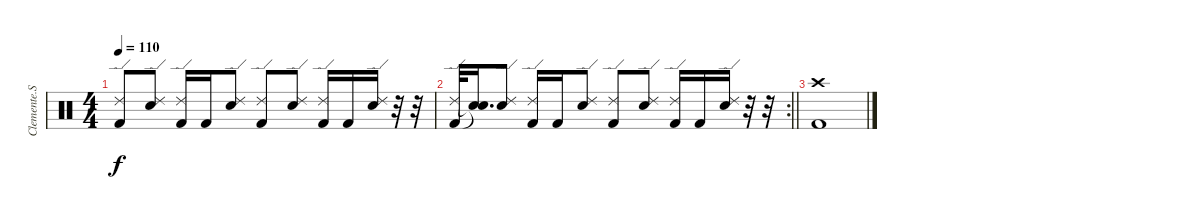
\track ("Clemente.S" "Clemente.S") {instrument percussion}
\staff {score}
\articulation defaults
\ts (4 4)
\tempo 110
\clef neutral
\ks c
("Ride (edge) 2" "Kick (hit) 2").8{dy f} ("Ride (edge) 2" "Electric Snare (hit)").8 ("Ride (edge) 2" "Kick (hit) 2").16 "Kick (hit) 2".16 ("Ride (edge) 2" "Electric Snare (hit)").8 ("Ride (edge) 2" "Kick (hit) 2").8 ("Ride (edge) 2" "Electric Snare (hit)").8 ("Ride (edge) 2" "Kick (hit) 2").16 "Kick (hit) 2".16 ("Ride (edge) 2" "Electric Snare (hit)").16 r.32 r.32 |
\rc 2
\barLineRight lightlight
("Ride (edge) 2" "Kick (hit) 2").32 ("Snare (hit)"{t} "Snare (hit)"{t}).16{d} ("Ride (edge) 2" "Electric Snare (hit)").8 ("Ride (edge) 2" "Kick (hit) 2").16 "Kick (hit) 2".16 ("Ride (edge) 2" "Electric Snare (hit)").8 ("Ride (edge) 2" "Kick (hit) 2").8 ("Ride (edge) 2" "Electric Snare (hit)").8 ("Ride (edge) 2" "Kick (hit) 2").16 "Kick (hit) 2".16 ("Ride (edge) 2" "Electric Snare (hit)").16 r.32 r.32 |
("Crash high (hit)" "Kick (hit) 2").1
